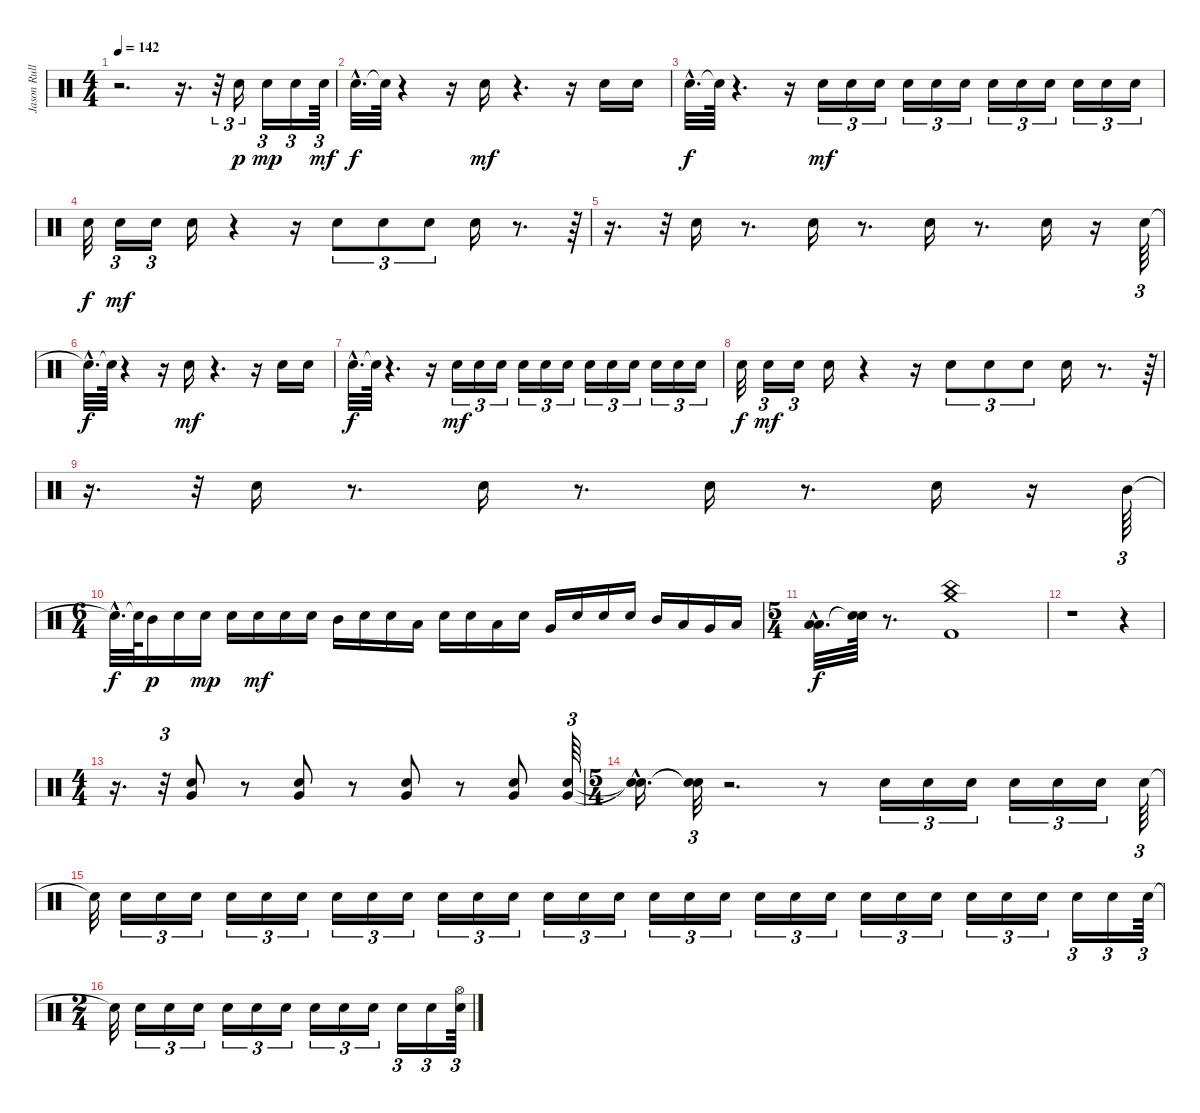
\track ("Jason Rullo" "Jason Rull") {instrument percussion}
\staff {score}
\articulation defaults
\ts (4 4)
\tempo 142
\clef neutral
\ks c
r.2{d dy f} r.16{d} r.32{tu (3 2)} "Electric Snare (hit)".16{tu (3 2) dy p} "Electric Snare (hit)".16{tu (3 2) dy mp} "Electric Snare (hit)".16{tu (3 2)} "Electric Snare (hit)".64{tu (3 2) dy mf} |
"Electric Snare (hit)"{hac}.32{d dy f} "Snare (hit)"{t}.64 r.4 r.16 "Electric Snare (hit)".16{dy mf} r.4{d} r.16 "Electric Snare (hit)".16 "Electric Snare (hit)".16 |
"Electric Snare (hit)"{hac}.32{d dy f} "Snare (hit)"{t}.64 r.4{d} r.16 "Electric Snare (hit)".16{tu (3 2) dy mf volume 0} "Electric Snare (hit)".16{tu (3 2) volume 1} "Electric Snare (hit)".16{tu (3 2) volume 2} "Electric Snare (hit)".16{tu (3 2) volume 3} "Electric Snare (hit)".16{tu (3 2) volume 4} "Electric Snare (hit)".16{tu (3 2) volume 5} "Electric Snare (hit)".16{tu (3 2) volume 6} "Electric Snare (hit)".16{tu (3 2) volume 6} "Electric Snare (hit)".16{tu (3 2) volume 8} "Electric Snare (hit)".16{tu (3 2) volume 8} "Electric Snare (hit)".16{tu (3 2) volume 9} "Electric Snare (hit)".16{tu (3 2) volume 10} |
"Electric Snare (hit)".32{dy f volume 11} "Electric Snare (hit)".16{tu (3 2) dy mf volume 12} "Electric Snare (hit)".16{tu (3 2) volume 13} "Electric Snare (hit)".16{volume 14} r.4 r.16 "Electric Snare (hit)".8{tu (3 2) volume 15} "Electric Snare (hit)".8{tu (3 2)} "Electric Snare (hit)".8{tu (3 2)} "Electric Snare (hit)".16 r.8{d} r.64{tu (3 2)} |
r.16{d} r.32{tu (3 2)} "Electric Snare (hit)".16 r.8{d} "Electric Snare (hit)".16 r.8{d} "Electric Snare (hit)".16 r.8{d} "Electric Snare (hit)".16 r.16 "Electric Snare (hit)".64{tu (3 2)} |
"Snare (hit)"{hac t}.32{d dy f} "Snare (hit)"{t}.64 r.4 r.16 "Electric Snare (hit)".16{dy mf} r.4{d} r.16 "Electric Snare (hit)".16 "Electric Snare (hit)".16 |
"Electric Snare (hit)"{hac}.32{d dy f} "Snare (hit)"{t}.64 r.4{d} r.16 "Electric Snare (hit)".16{tu (3 2) dy mf volume 0} "Electric Snare (hit)".16{tu (3 2) volume 1} "Electric Snare (hit)".16{tu (3 2) volume 2} "Electric Snare (hit)".16{tu (3 2) volume 3} "Electric Snare (hit)".16{tu (3 2) volume 4} "Electric Snare (hit)".16{tu (3 2) volume 5} "Electric Snare (hit)".16{tu (3 2) volume 6} "Electric Snare (hit)".16{tu (3 2) volume 6} "Electric Snare (hit)".16{tu (3 2) volume 8} "Electric Snare (hit)".16{tu (3 2) volume 8} "Electric Snare (hit)".16{tu (3 2) volume 9} "Electric Snare (hit)".16{tu (3 2) volume 10} |
"Electric Snare (hit)".32{dy f volume 11} "Electric Snare (hit)".16{tu (3 2) dy mf volume 12} "Electric Snare (hit)".16{tu (3 2) volume 13} "Electric Snare (hit)".16{volume 14} r.4 r.16 "Electric Snare (hit)".8{tu (3 2) volume 15} "Electric Snare (hit)".8{tu (3 2)} "Electric Snare (hit)".8{tu (3 2)} "Electric Snare (hit)".16 r.8{d} r.64{tu (3 2)} |
r.16{d} r.32{tu (3 2)} "Electric Snare (hit)".16 r.8{d} "Electric Snare (hit)".16 r.8{d} "Electric Snare (hit)".16 r.8{d} "Electric Snare (hit)".16 r.16 "Mid Tom (hit)".64{tu (3 2)} |
\ts (6 4)
"Snare (hit)"{hac t}.32{d dy f} "Snare (hit)"{t}.64 "Mid Tom (hit)".16{dy p} "Electric Snare (hit)".16 "Electric Snare (hit)".16{dy mp} "Electric Snare (hit)".16 "Electric Snare (hit)".16{dy mf} "Electric Snare (hit)".16 "Electric Snare (hit)".16 "Mid Tom (hit)".16 "Electric Snare (hit)".16 "Electric Snare (hit)".16 "Low Tom (hit)".16 "Electric Snare (hit)".16 "Electric Snare (hit)".16 "Low Tom (hit)".16 "Electric Snare (hit)".16 "Very Low Tom (hit)".16 "Electric Snare (hit)".16 "Electric Snare (hit)".16 "Electric Snare (hit)".16 "Mid Tom (hit)".16 "Low Tom (hit)".16 "Very Low Tom (hit)".16 "Low Floor Tom (hit)".16 |
\ts (5 4)
("Low Tom (hit)"{hac} "Low Floor Tom (hit)"{hac}).32{d dy f} ("Snare (hit)"{t} "Snare (hit)"{t}).64 r.8{d} ("China (hit)" "Crash medium (hit)" "Kick (hit) 2").1 |
r.1 r.4 |
\ts (4 4)
r.16{d} r.32{tu (3 2)} ("Very Low Tom (hit)" "Electric Snare (hit)").8 r.8 ("Very Low Tom (hit)" "Electric Snare (hit)").8 r.8 ("Very Low Tom (hit)" "Electric Snare (hit)").8 r.8 ("Very Low Tom (hit)" "Electric Snare (hit)").8 ("Very Low Tom (hit)" "Electric Snare (hit)").64{tu (3 2)} |
\ts (5 4)
("Snare (hit)"{hac t} "Snare (hit)"{hac t}).16{d} ("Snare (hit)"{t} "Snare (hit)"{t}).32{tu (3 2)} r.2{d} r.8 "Electric Snare (hit)".16{tu (3 2) volume 0} "Electric Snare (hit)".16{tu (3 2) volume 0} "Electric Snare (hit)".16{tu (3 2) volume 1} "Electric Snare (hit)".16{tu (3 2) volume 1} "Electric Snare (hit)".16{tu (3 2) volume 1} "Electric Snare (hit)".16{tu (3 2) volume 2} "Electric Snare (hit)".64{tu (3 2) volume 2} |
"Snare (hit)"{t}.32 "Electric Snare (hit)".16{tu (3 2) volume 2} "Electric Snare (hit)".16{tu (3 2) volume 2} "Electric Snare (hit)".16{tu (3 2) volume 3} "Electric Snare (hit)".16{tu (3 2) volume 3} "Electric Snare (hit)".16{tu (3 2) volume 3} "Electric Snare (hit)".16{tu (3 2) volume 4} "Electric Snare (hit)".16{tu (3 2) volume 4} "Electric Snare (hit)".16{tu (3 2) volume 4} "Electric Snare (hit)".16{tu (3 2) volume 5} "Electric Snare (hit)".16{tu (3 2) volume 5} "Electric Snare (hit)".16{tu (3 2) volume 5} "Electric Snare (hit)".16{tu (3 2) volume 6} "Electric Snare (hit)".16{tu (3 2) volume 6} "Electric Snare (hit)".16{tu (3 2) volume 6} "Electric Snare (hit)".16{tu (3 2) volume 6} "Electric Snare (hit)".16{tu (3 2) volume 7} "Electric Snare (hit)".16{tu (3 2) volume 7} "Electric Snare (hit)".16{tu (3 2) volume 7} "Electric Snare (hit)".16{tu (3 2) volume 8} "Electric Snare (hit)".16{tu (3 2) volume 8} "Electric Snare (hit)".16{tu (3 2) volume 8} "Electric Snare (hit)".16{tu (3 2) volume 9} "Electric Snare (hit)".16{tu (3 2) volume 9} "Electric Snare (hit)".16{tu (3 2) volume 9} "Electric Snare (hit)".16{tu (3 2) volume 10} "Electric Snare (hit)".16{tu (3 2) volume 10} "Electric Snare (hit)".16{tu (3 2) volume 10} "Electric Snare (hit)".16{tu (3 2) volume 10} "Electric Snare (hit)".16{tu (3 2) volume 11} "Electric Snare (hit)".64{tu (3 2) volume 11} |
\ts (2 4)
"Snare (hit)"{t}.32 "Electric Snare (hit)".16{tu (3 2) volume 11} "Electric Snare (hit)".16{tu (3 2) volume 12} "Electric Snare (hit)".16{tu (3 2) volume 12} "Electric Snare (hit)".16{tu (3 2) volume 12} "Electric Snare (hit)".16{tu (3 2) volume 13} "Electric Snare (hit)".16{tu (3 2) volume 13} "Electric Snare (hit)".16{tu (3 2) volume 13} "Electric Snare (hit)".16{tu (3 2) volume 14} "Electric Snare (hit)".16{tu (3 2) volume 14} "Electric Snare (hit)".16{tu (3 2) volume 14} "Electric Snare (hit)".16{tu (3 2) volume 14} ("Hi-Hat (open)" "Electric Snare (hit)").64{tu (3 2) volume 15}
